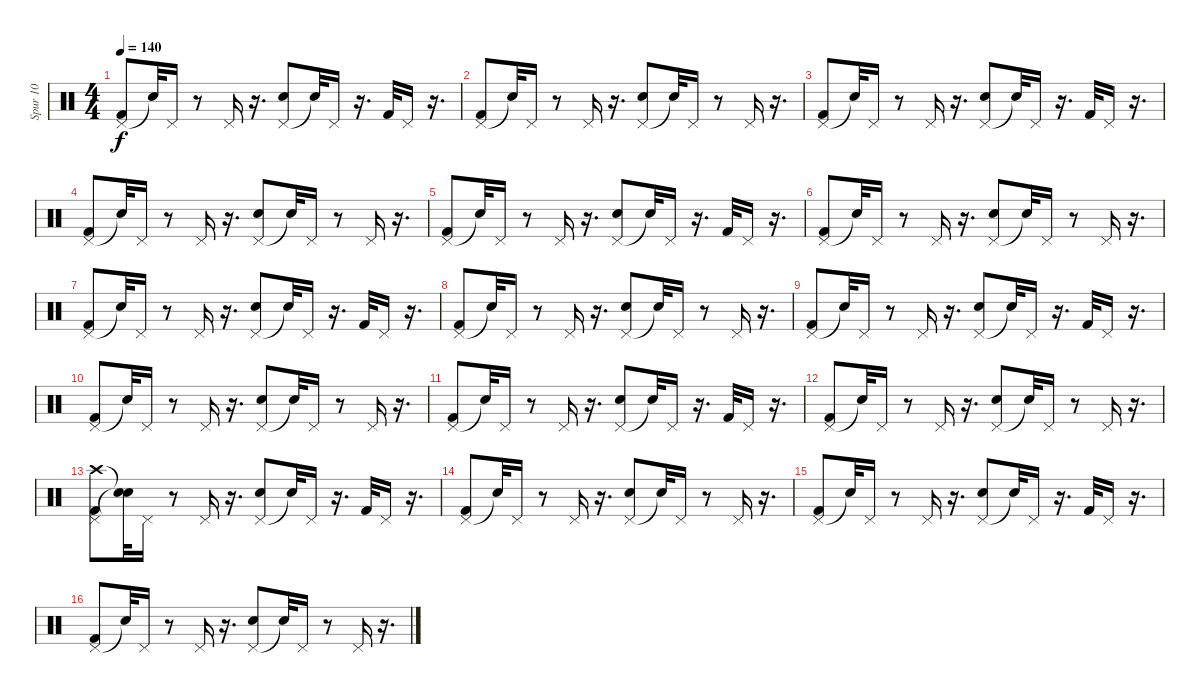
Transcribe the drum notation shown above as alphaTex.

\track ("Spur 10" "Spur 10") {instrument percussion}
\staff {score}
\articulation defaults
\ts (4 4)
\tempo 140
\clef neutral
\ks c
("Pedal Hi-Hat (hit)" "Kick (hit) 2").8{dy f} "Snare (hit)"{t}.32 "Pedal Hi-Hat (hit)".16 r.8 "Pedal Hi-Hat (hit)".16 r.16{d} ("Pedal Hi-Hat (hit)" "Snare (hit) 2").8 "Snare (hit)"{t}.32 "Pedal Hi-Hat (hit)".16 r.16{d} "Kick (hit) 2".32 "Pedal Hi-Hat (hit)".16 r.16{d} |
("Pedal Hi-Hat (hit)" "Kick (hit) 2").8 "Snare (hit)"{t}.32 "Pedal Hi-Hat (hit)".16 r.8 "Pedal Hi-Hat (hit)".16 r.16{d} ("Pedal Hi-Hat (hit)" "Snare (hit) 2").8 "Snare (hit)"{t}.32 "Pedal Hi-Hat (hit)".16 r.8 "Pedal Hi-Hat (hit)".16 r.16{d} |
("Pedal Hi-Hat (hit)" "Kick (hit) 2").8 "Snare (hit)"{t}.32 "Pedal Hi-Hat (hit)".16 r.8 "Pedal Hi-Hat (hit)".16 r.16{d} ("Pedal Hi-Hat (hit)" "Snare (hit) 2").8 "Snare (hit)"{t}.32 "Pedal Hi-Hat (hit)".16 r.16{d} "Kick (hit) 2".32 "Pedal Hi-Hat (hit)".16 r.16{d} |
("Pedal Hi-Hat (hit)" "Kick (hit) 2").8 "Snare (hit)"{t}.32 "Pedal Hi-Hat (hit)".16 r.8 "Pedal Hi-Hat (hit)".16 r.16{d} ("Pedal Hi-Hat (hit)" "Snare (hit) 2").8 "Snare (hit)"{t}.32 "Pedal Hi-Hat (hit)".16 r.8 "Pedal Hi-Hat (hit)".16 r.16{d} |
("Pedal Hi-Hat (hit)" "Kick (hit) 2").8 "Snare (hit)"{t}.32 "Pedal Hi-Hat (hit)".16 r.8 "Pedal Hi-Hat (hit)".16 r.16{d} ("Pedal Hi-Hat (hit)" "Snare (hit) 2").8 "Snare (hit)"{t}.32 "Pedal Hi-Hat (hit)".16 r.16{d} "Kick (hit) 2".32 "Pedal Hi-Hat (hit)".16 r.16{d} |
("Pedal Hi-Hat (hit)" "Kick (hit) 2").8 "Snare (hit)"{t}.32 "Pedal Hi-Hat (hit)".16 r.8 "Pedal Hi-Hat (hit)".16 r.16{d} ("Pedal Hi-Hat (hit)" "Snare (hit) 2").8 "Snare (hit)"{t}.32 "Pedal Hi-Hat (hit)".16 r.8 "Pedal Hi-Hat (hit)".16 r.16{d} |
("Pedal Hi-Hat (hit)" "Kick (hit) 2").8 "Snare (hit)"{t}.32 "Pedal Hi-Hat (hit)".16 r.8 "Pedal Hi-Hat (hit)".16 r.16{d} ("Pedal Hi-Hat (hit)" "Snare (hit) 2").8 "Snare (hit)"{t}.32 "Pedal Hi-Hat (hit)".16 r.16{d} "Kick (hit) 2".32 "Pedal Hi-Hat (hit)".16 r.16{d} |
("Pedal Hi-Hat (hit)" "Kick (hit) 2").8 "Snare (hit)"{t}.32 "Pedal Hi-Hat (hit)".16 r.8 "Pedal Hi-Hat (hit)".16 r.16{d} ("Pedal Hi-Hat (hit)" "Snare (hit) 2").8 "Snare (hit)"{t}.32 "Pedal Hi-Hat (hit)".16 r.8 "Pedal Hi-Hat (hit)".16 r.16{d} |
("Pedal Hi-Hat (hit)" "Kick (hit) 2").8 "Snare (hit)"{t}.32 "Pedal Hi-Hat (hit)".16 r.8 "Pedal Hi-Hat (hit)".16 r.16{d} ("Pedal Hi-Hat (hit)" "Snare (hit) 2").8 "Snare (hit)"{t}.32 "Pedal Hi-Hat (hit)".16 r.16{d} "Kick (hit) 2".32 "Pedal Hi-Hat (hit)".16 r.16{d} |
("Pedal Hi-Hat (hit)" "Kick (hit) 2").8 "Snare (hit)"{t}.32 "Pedal Hi-Hat (hit)".16 r.8 "Pedal Hi-Hat (hit)".16 r.16{d} ("Pedal Hi-Hat (hit)" "Snare (hit) 2").8 "Snare (hit)"{t}.32 "Pedal Hi-Hat (hit)".16 r.8 "Pedal Hi-Hat (hit)".16 r.16{d} |
("Pedal Hi-Hat (hit)" "Kick (hit) 2").8 "Snare (hit)"{t}.32 "Pedal Hi-Hat (hit)".16 r.8 "Pedal Hi-Hat (hit)".16 r.16{d} ("Pedal Hi-Hat (hit)" "Snare (hit) 2").8 "Snare (hit)"{t}.32 "Pedal Hi-Hat (hit)".16 r.16{d} "Kick (hit) 2".32 "Pedal Hi-Hat (hit)".16 r.16{d} |
("Pedal Hi-Hat (hit)" "Kick (hit) 2").8 "Snare (hit)"{t}.32 "Pedal Hi-Hat (hit)".16 r.8 "Pedal Hi-Hat (hit)".16 r.16{d} ("Pedal Hi-Hat (hit)" "Snare (hit) 2").8 "Snare (hit)"{t}.32 "Pedal Hi-Hat (hit)".16 r.8 "Pedal Hi-Hat (hit)".16 r.16{d} |
("Crash high (hit)" "Pedal Hi-Hat (hit)" "Kick (hit) 2").8 ("Snare (hit)"{t} "Snare (hit)"{t}).32 "Pedal Hi-Hat (hit)".16 r.8 "Pedal Hi-Hat (hit)".16 r.16{d} ("Pedal Hi-Hat (hit)" "Snare (hit) 2").8 "Snare (hit)"{t}.32 "Pedal Hi-Hat (hit)".16 r.16{d} "Kick (hit) 2".32 "Pedal Hi-Hat (hit)".16 r.16{d} |
("Pedal Hi-Hat (hit)" "Kick (hit) 2").8 "Snare (hit)"{t}.32 "Pedal Hi-Hat (hit)".16 r.8 "Pedal Hi-Hat (hit)".16 r.16{d} ("Pedal Hi-Hat (hit)" "Snare (hit) 2").8 "Snare (hit)"{t}.32 "Pedal Hi-Hat (hit)".16 r.8 "Pedal Hi-Hat (hit)".16 r.16{d} |
("Pedal Hi-Hat (hit)" "Kick (hit) 2").8 "Snare (hit)"{t}.32 "Pedal Hi-Hat (hit)".16 r.8 "Pedal Hi-Hat (hit)".16 r.16{d} ("Pedal Hi-Hat (hit)" "Snare (hit) 2").8 "Snare (hit)"{t}.32 "Pedal Hi-Hat (hit)".16 r.16{d} "Kick (hit) 2".32 "Pedal Hi-Hat (hit)".16 r.16{d} |
("Pedal Hi-Hat (hit)" "Kick (hit) 2").8 "Snare (hit)"{t}.32 "Pedal Hi-Hat (hit)".16 r.8 "Pedal Hi-Hat (hit)".16 r.16{d} ("Pedal Hi-Hat (hit)" "Snare (hit) 2").8 "Snare (hit)"{t}.32 "Pedal Hi-Hat (hit)".16 r.8 "Pedal Hi-Hat (hit)".16 r.16{d}
